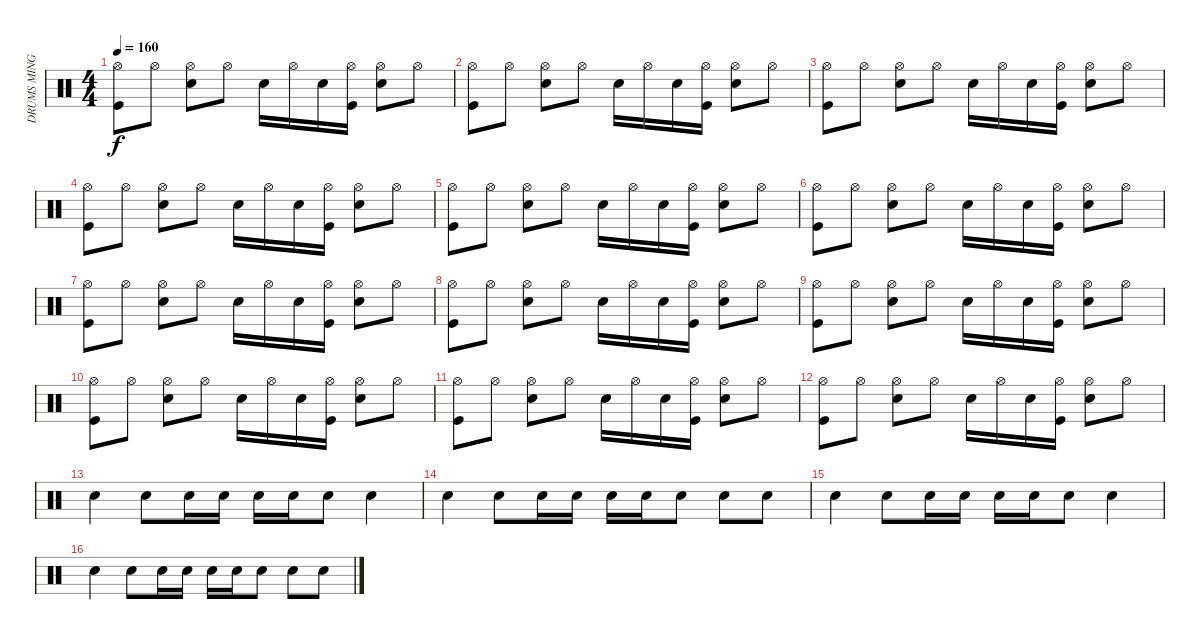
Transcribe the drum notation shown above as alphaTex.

\track ("DRUMS MING" "DRUMS MING") {instrument percussion}
\staff {score}
\articulation defaults
\ts (4 4)
\tempo 160
\clef neutral
\ks c
("Hi-Hat (open)" "Kick (hit)").8{dy f} "Hi-Hat (open)".8 ("Hi-Hat (open)" "Snare (hit) 2").8 "Hi-Hat (open)".8 "Snare (hit) 2".16 "Hi-Hat (open)".16 "Snare (hit) 2".16 ("Hi-Hat (open)" "Kick (hit)").16 ("Hi-Hat (open)" "Snare (hit) 2").8 "Hi-Hat (open)".8 |
("Hi-Hat (open)" "Kick (hit)").8 "Hi-Hat (open)".8 ("Hi-Hat (open)" "Snare (hit) 2").8 "Hi-Hat (open)".8 "Snare (hit) 2".16 "Hi-Hat (open)".16 "Snare (hit) 2".16 ("Hi-Hat (open)" "Kick (hit)").16 ("Hi-Hat (open)" "Snare (hit) 2").8 "Hi-Hat (open)".8 |
("Hi-Hat (open)" "Kick (hit)").8 "Hi-Hat (open)".8 ("Hi-Hat (open)" "Snare (hit) 2").8 "Hi-Hat (open)".8 "Snare (hit) 2".16 "Hi-Hat (open)".16 "Snare (hit) 2".16 ("Hi-Hat (open)" "Kick (hit)").16 ("Hi-Hat (open)" "Snare (hit) 2").8 "Hi-Hat (open)".8 |
("Hi-Hat (open)" "Kick (hit)").8 "Hi-Hat (open)".8 ("Hi-Hat (open)" "Snare (hit) 2").8 "Hi-Hat (open)".8 "Snare (hit) 2".16 "Hi-Hat (open)".16 "Snare (hit) 2".16 ("Hi-Hat (open)" "Kick (hit)").16 ("Hi-Hat (open)" "Snare (hit) 2").8 "Hi-Hat (open)".8 |
("Hi-Hat (open)" "Kick (hit)").8 "Hi-Hat (open)".8 ("Hi-Hat (open)" "Snare (hit) 2").8 "Hi-Hat (open)".8 "Snare (hit) 2".16 "Hi-Hat (open)".16 "Snare (hit) 2".16 ("Hi-Hat (open)" "Kick (hit)").16 ("Hi-Hat (open)" "Snare (hit) 2").8 "Hi-Hat (open)".8 |
("Hi-Hat (open)" "Kick (hit)").8 "Hi-Hat (open)".8 ("Hi-Hat (open)" "Snare (hit) 2").8 "Hi-Hat (open)".8 "Snare (hit) 2".16 "Hi-Hat (open)".16 "Snare (hit) 2".16 ("Hi-Hat (open)" "Kick (hit)").16 ("Hi-Hat (open)" "Snare (hit) 2").8 "Hi-Hat (open)".8 |
("Hi-Hat (open)" "Kick (hit)").8 "Hi-Hat (open)".8 ("Hi-Hat (open)" "Snare (hit) 2").8 "Hi-Hat (open)".8 "Snare (hit) 2".16 "Hi-Hat (open)".16 "Snare (hit) 2".16 ("Hi-Hat (open)" "Kick (hit)").16 ("Hi-Hat (open)" "Snare (hit) 2").8 "Hi-Hat (open)".8 |
("Hi-Hat (open)" "Kick (hit)").8 "Hi-Hat (open)".8 ("Hi-Hat (open)" "Snare (hit) 2").8 "Hi-Hat (open)".8 "Snare (hit) 2".16 "Hi-Hat (open)".16 "Snare (hit) 2".16 ("Hi-Hat (open)" "Kick (hit)").16 ("Hi-Hat (open)" "Snare (hit) 2").8 "Hi-Hat (open)".8 |
("Hi-Hat (open)" "Kick (hit)").8 "Hi-Hat (open)".8 ("Hi-Hat (open)" "Snare (hit) 2").8 "Hi-Hat (open)".8 "Snare (hit) 2".16 "Hi-Hat (open)".16 "Snare (hit) 2".16 ("Hi-Hat (open)" "Kick (hit)").16 ("Hi-Hat (open)" "Snare (hit) 2").8 "Hi-Hat (open)".8 |
("Hi-Hat (open)" "Kick (hit)").8 "Hi-Hat (open)".8 ("Hi-Hat (open)" "Snare (hit) 2").8 "Hi-Hat (open)".8 "Snare (hit) 2".16 "Hi-Hat (open)".16 "Snare (hit) 2".16 ("Hi-Hat (open)" "Kick (hit)").16 ("Hi-Hat (open)" "Snare (hit) 2").8 "Hi-Hat (open)".8 |
("Hi-Hat (open)" "Kick (hit)").8 "Hi-Hat (open)".8 ("Hi-Hat (open)" "Snare (hit) 2").8 "Hi-Hat (open)".8 "Snare (hit) 2".16 "Hi-Hat (open)".16 "Snare (hit) 2".16 ("Hi-Hat (open)" "Kick (hit)").16 ("Hi-Hat (open)" "Snare (hit) 2").8 "Hi-Hat (open)".8 |
("Hi-Hat (open)" "Kick (hit)").8 "Hi-Hat (open)".8 ("Hi-Hat (open)" "Snare (hit) 2").8 "Hi-Hat (open)".8 "Snare (hit) 2".16 "Hi-Hat (open)".16 "Snare (hit) 2".16 ("Hi-Hat (open)" "Kick (hit)").16 ("Hi-Hat (open)" "Snare (hit) 2").8 "Hi-Hat (open)".8 |
"Snare (hit) 2".4 "Snare (hit) 2".8 "Snare (hit) 2".16 "Snare (hit) 2".16 "Snare (hit) 2".16 "Snare (hit) 2".16 "Snare (hit) 2".8 "Snare (hit) 2".4 |
"Snare (hit) 2".4 "Snare (hit) 2".8 "Snare (hit) 2".16 "Snare (hit) 2".16 "Snare (hit) 2".16 "Snare (hit) 2".16 "Snare (hit) 2".8 "Snare (hit) 2".8 "Snare (hit) 2".8 |
"Snare (hit) 2".4 "Snare (hit) 2".8 "Snare (hit) 2".16 "Snare (hit) 2".16 "Snare (hit) 2".16 "Snare (hit) 2".16 "Snare (hit) 2".8 "Snare (hit) 2".4 |
"Snare (hit) 2".4 "Snare (hit) 2".8 "Snare (hit) 2".16 "Snare (hit) 2".16 "Snare (hit) 2".16 "Snare (hit) 2".16 "Snare (hit) 2".8 "Snare (hit) 2".8 "Snare (hit) 2".8
